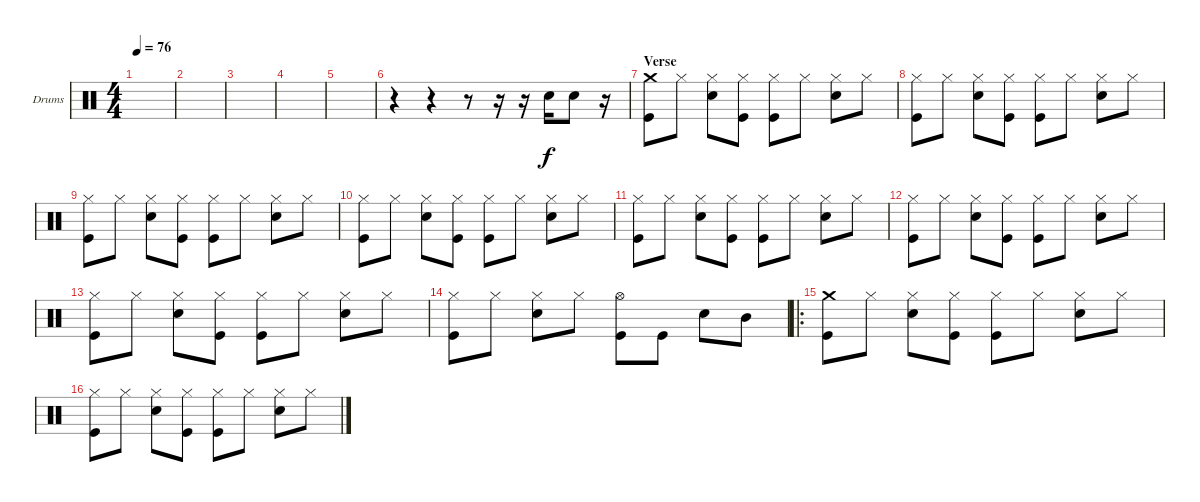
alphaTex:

\defaultSystemsLayout 4
\bracketExtendMode nobrackets
\firstSystemTrackNameOrientation horizontal
\otherSystemsTrackNameOrientation horizontal
\track ("Dave Krusen" "Drums") {instrument percussion}
\staff {score}
\articulation defaults
\ts (4 4)
\tempo 76
\clef neutral
\ks c
|
|
|
|
|
r.4 r.4 r.8 r.16 r.16 "Snare (hit) 2".16 "Snare (hit) 2".8 r.16 |
\section ("" "Verse")
("Kick (hit)" "Crash medium (hit)").8 "Hi-Hat (closed)".8 ("Snare (hit) 2" "Hi-Hat (closed)").8 ("Kick (hit)" "Hi-Hat (closed)").8 ("Kick (hit)" "Hi-Hat (closed)").8 "Hi-Hat (closed)".8 ("Snare (hit) 2" "Hi-Hat (closed)").8 "Hi-Hat (closed)".8 |
("Kick (hit)" "Hi-Hat (closed)").8 "Hi-Hat (closed)".8 ("Snare (hit) 2" "Hi-Hat (closed)").8 ("Kick (hit)" "Hi-Hat (closed)").8 ("Kick (hit)" "Hi-Hat (closed)").8 "Hi-Hat (closed)".8 ("Snare (hit) 2" "Hi-Hat (closed)").8 "Hi-Hat (closed)".8 |
("Kick (hit)" "Hi-Hat (closed)").8 "Hi-Hat (closed)".8 ("Snare (hit) 2" "Hi-Hat (closed)").8 ("Kick (hit)" "Hi-Hat (closed)").8 ("Kick (hit)" "Hi-Hat (closed)").8 "Hi-Hat (closed)".8 ("Snare (hit) 2" "Hi-Hat (closed)").8 "Hi-Hat (closed)".8 |
("Kick (hit)" "Hi-Hat (closed)").8 "Hi-Hat (closed)".8 ("Snare (hit) 2" "Hi-Hat (closed)").8 ("Kick (hit)" "Hi-Hat (closed)").8 ("Kick (hit)" "Hi-Hat (closed)").8 "Hi-Hat (closed)".8 ("Snare (hit) 2" "Hi-Hat (closed)").8 "Hi-Hat (closed)".8 |
("Kick (hit)" "Hi-Hat (closed)").8 "Hi-Hat (closed)".8 ("Snare (hit) 2" "Hi-Hat (closed)").8 ("Kick (hit)" "Hi-Hat (closed)").8 ("Kick (hit)" "Hi-Hat (closed)").8 "Hi-Hat (closed)".8 ("Snare (hit) 2" "Hi-Hat (closed)").8 "Hi-Hat (closed)".8 |
("Kick (hit)" "Hi-Hat (closed)").8 "Hi-Hat (closed)".8 ("Snare (hit) 2" "Hi-Hat (closed)").8 ("Kick (hit)" "Hi-Hat (closed)").8 ("Kick (hit)" "Hi-Hat (closed)").8 "Hi-Hat (closed)".8 ("Snare (hit) 2" "Hi-Hat (closed)").8 "Hi-Hat (closed)".8 |
("Kick (hit)" "Hi-Hat (closed)").8 "Hi-Hat (closed)".8 ("Snare (hit) 2" "Hi-Hat (closed)").8 ("Kick (hit)" "Hi-Hat (closed)").8 ("Kick (hit)" "Hi-Hat (closed)").8 "Hi-Hat (closed)".8 ("Snare (hit) 2" "Hi-Hat (closed)").8 "Hi-Hat (closed)".8 |
("Kick (hit)" "Hi-Hat (closed)").8 "Hi-Hat (closed)".8 ("Snare (hit) 2" "Hi-Hat (closed)").8 "Hi-Hat (closed)".8 ("Kick (hit)" "Hi-Hat (open)").8 "Kick (hit)".8 "Snare (hit) 2".8 "Mid Tom (hit)".8 |
\ro
("Kick (hit)" "Crash medium (hit)").8 "Hi-Hat (closed)".8 ("Snare (hit) 2" "Hi-Hat (closed)").8 ("Kick (hit)" "Hi-Hat (closed)").8 ("Kick (hit)" "Hi-Hat (closed)").8 "Hi-Hat (closed)".8 ("Snare (hit) 2" "Hi-Hat (closed)").8 "Hi-Hat (closed)".8 |
("Kick (hit)" "Hi-Hat (closed)").8 "Hi-Hat (closed)".8 ("Snare (hit) 2" "Hi-Hat (closed)").8 ("Kick (hit)" "Hi-Hat (closed)").8 ("Kick (hit)" "Hi-Hat (closed)").8 "Hi-Hat (closed)".8 ("Snare (hit) 2" "Hi-Hat (closed)").8 "Hi-Hat (closed)".8
